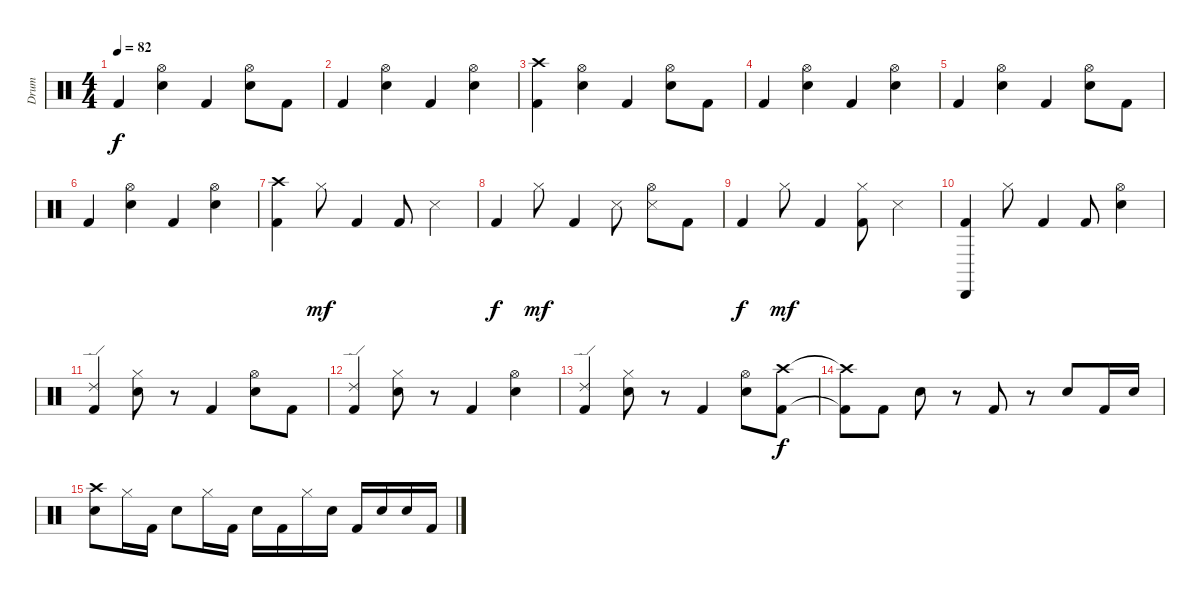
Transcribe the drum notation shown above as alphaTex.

\track ("Drum" "Drum") {instrument percussion}
\staff {score}
\articulation defaults
\ts (4 4)
\tempo 82
\clef neutral
\ks c "Kick (hit) 2".4{dy f}
("Hi-Hat (open)" "Snare (hit) 2").4 "Kick (hit) 2".4 ("Hi-Hat (open)" "Snare (hit) 2").8 "Kick (hit) 2".8 |
"Kick (hit) 2".4 ("Hi-Hat (open)" "Snare (hit) 2").4 "Kick (hit) 2".4 ("Hi-Hat (open)" "Snare (hit) 2").4 |
("Crash high (hit)" "Kick (hit) 2").4 ("Hi-Hat (open)" "Snare (hit) 2").4 "Kick (hit) 2".4 ("Hi-Hat (open)" "Snare (hit) 2").8 "Kick (hit) 2".8 |
"Kick (hit) 2".4 ("Hi-Hat (open)" "Snare (hit) 2").4 "Kick (hit) 2".4 ("Hi-Hat (open)" "Snare (hit) 2").4 |
"Kick (hit) 2".4 ("Hi-Hat (open)" "Snare (hit) 2").4 "Kick (hit) 2".4 ("Hi-Hat (open)" "Snare (hit) 2").8 "Kick (hit) 2".8 |
"Kick (hit) 2".4 ("Hi-Hat (open)" "Snare (hit) 2").4 "Kick (hit) 2".4 ("Hi-Hat (open)" "Snare (hit) 2").4 |
("Crash high (hit)" "Kick (hit) 2").4 "Hi-Hat (closed)".8{dy mf} "Kick (hit) 2".4 "Kick (hit) 2".8 "Snare (side stick) 3".4 |
"Kick (hit) 2".4{dy f} "Hi-Hat (closed)".8{dy mf} "Kick (hit) 2".4 "Snare (side stick) 3".8 ("Hi-Hat (open)" "Snare (side stick) 3").8 "Kick (hit) 2".8 |
"Kick (hit) 2".4{dy f} "Hi-Hat (closed)".8{dy mf} "Kick (hit) 2".4 ("Hi-Hat (closed)" "Kick (hit) 2").8 "Snare (side stick) 3".4 |
("Cabasa (hit)" "Kick (hit) 2").4 "Hi-Hat (closed)".8 "Kick (hit) 2".4 "Kick (hit) 2".8 ("Hi-Hat (open)" "Snare (hit) 2").4 |
("Ride (edge) 2" "Kick (hit) 2").4 ("Hi-Hat (closed)" "Snare (hit) 2").8 r.8 "Kick (hit) 2".4 ("Hi-Hat (open)" "Snare (hit) 2").8 "Kick (hit) 2".8 |
("Ride (edge) 2" "Kick (hit) 2").4 ("Hi-Hat (closed)" "Snare (hit) 2").8 r.8 "Kick (hit) 2".4 ("Hi-Hat (open)" "Snare (hit) 2").4 |
("Ride (edge) 2" "Kick (hit) 2").4 ("Hi-Hat (closed)" "Snare (hit) 2").8 r.8 "Kick (hit) 2".4 ("Hi-Hat (open)" "Snare (hit) 2").8 ("Crash high (hit)" "Kick (hit) 2").8{dy f} |
("Crash high (hit)"{t} "Kick (hit) 2"{t}).8 "Kick (hit) 2".8 "Snare (hit) 2".8 r.8 "Kick (hit) 2".8 r.8 "Snare (hit) 2".8 "Kick (hit) 2".16 "Snare (hit) 2".16 |
("Crash high (hit)" "Snare (hit) 2").8 "Hi-Hat (closed)".16 "Kick (hit) 2".16 "Snare (hit) 2".8 "Hi-Hat (closed)".16 "Kick (hit) 2".16 "Snare (hit) 2".16 "Kick (hit) 2".16 "Hi-Hat (closed)".16 "Snare (hit) 2".16 "Kick (hit) 2".16 "Snare (hit) 2".16 "Snare (hit) 2".16 "Kick (hit) 2".16
